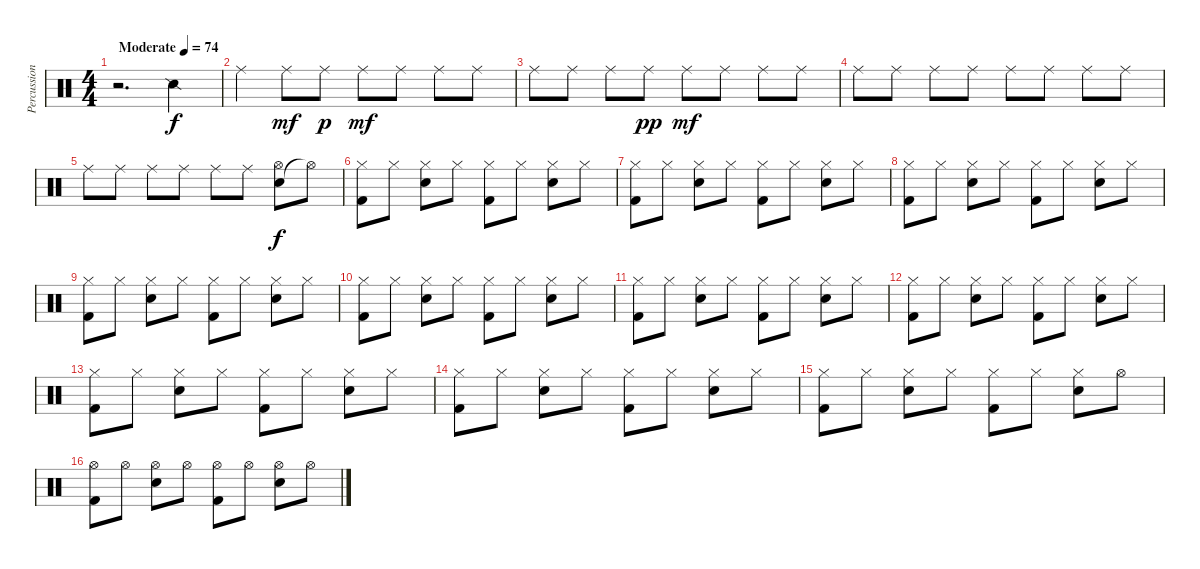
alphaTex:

\track ("Percussions" "Percussion") {instrument percussion}
\staff {score}
\articulation defaults
\ts (4 4)
\tempo (74 "Moderate")
\clef neutral
\ks c
r.2{d dy f} "Snare (side stick) 2".4 |
"Ride (middle)".4 "Ride (middle)".8{dy mf} "Ride (middle)".8{dy p} "Ride (middle)".8{dy mf} "Ride (middle)".8 "Ride (middle)".8 "Ride (middle)".8 |
"Ride (middle)".8 "Ride (middle)".8 "Ride (middle)".8 "Ride (middle)".8{dy pp} "Ride (middle)".8{dy mf} "Ride (middle)".8 "Ride (middle)".8 "Ride (middle)".8 |
"Ride (middle)".8 "Ride (middle)".8 "Ride (middle)".8 "Ride (middle)".8 "Ride (middle)".8 "Ride (middle)".8 "Ride (middle)".8 "Ride (middle)".8 |
"Ride (middle)".8 "Ride (middle)".8 "Ride (middle)".8 "Ride (middle)".8 "Ride (middle)".8 "Ride (middle)".8 ("Electric Snare (hit)" "Hi-Hat (open)").8{dy f} "Hi-Hat (open)"{t}.8 |
("Hi-Hat (closed)" "Kick (hit) 2").8 "Hi-Hat (closed)".8 ("Hi-Hat (closed)" "Electric Snare (hit)").8 "Hi-Hat (closed)".8 ("Hi-Hat (closed)" "Kick (hit) 2").8 "Hi-Hat (closed)".8 ("Hi-Hat (closed)" "Electric Snare (hit)").8 "Hi-Hat (closed)".8 |
("Hi-Hat (closed)" "Kick (hit) 2").8 "Hi-Hat (closed)".8 ("Hi-Hat (closed)" "Electric Snare (hit)").8 "Hi-Hat (closed)".8 ("Hi-Hat (closed)" "Kick (hit) 2").8 "Hi-Hat (closed)".8 ("Hi-Hat (closed)" "Electric Snare (hit)").8 "Hi-Hat (closed)".8 |
("Hi-Hat (closed)" "Kick (hit) 2").8 "Hi-Hat (closed)".8 ("Hi-Hat (closed)" "Electric Snare (hit)").8 "Hi-Hat (closed)".8 ("Hi-Hat (closed)" "Kick (hit) 2").8 "Hi-Hat (closed)".8 ("Hi-Hat (closed)" "Electric Snare (hit)").8 "Hi-Hat (closed)".8 |
("Hi-Hat (closed)" "Kick (hit) 2").8 "Hi-Hat (closed)".8 ("Hi-Hat (closed)" "Electric Snare (hit)").8 "Hi-Hat (closed)".8 ("Hi-Hat (closed)" "Kick (hit) 2").8 "Hi-Hat (closed)".8 ("Hi-Hat (closed)" "Electric Snare (hit)").8 "Hi-Hat (closed)".8 |
("Hi-Hat (closed)" "Kick (hit) 2").8 "Hi-Hat (closed)".8 ("Hi-Hat (closed)" "Electric Snare (hit)").8 "Hi-Hat (closed)".8 ("Hi-Hat (closed)" "Kick (hit) 2").8 "Hi-Hat (closed)".8 ("Hi-Hat (closed)" "Electric Snare (hit)").8 "Hi-Hat (closed)".8 |
("Hi-Hat (closed)" "Kick (hit) 2").8 "Hi-Hat (closed)".8 ("Hi-Hat (closed)" "Electric Snare (hit)").8 "Hi-Hat (closed)".8 ("Hi-Hat (closed)" "Kick (hit) 2").8 "Hi-Hat (closed)".8 ("Hi-Hat (closed)" "Electric Snare (hit)").8 "Hi-Hat (closed)".8 |
("Hi-Hat (closed)" "Kick (hit) 2").8 "Hi-Hat (closed)".8 ("Hi-Hat (closed)" "Electric Snare (hit)").8 "Hi-Hat (closed)".8 ("Hi-Hat (closed)" "Kick (hit) 2").8 "Hi-Hat (closed)".8 ("Hi-Hat (closed)" "Electric Snare (hit)").8 "Hi-Hat (closed)".8 |
("Hi-Hat (closed)" "Kick (hit) 2").8 "Hi-Hat (closed)".8 ("Hi-Hat (closed)" "Electric Snare (hit)").8 "Hi-Hat (closed)".8 ("Hi-Hat (closed)" "Kick (hit) 2").8 "Hi-Hat (closed)".8 ("Hi-Hat (closed)" "Electric Snare (hit)").8 "Hi-Hat (closed)".8 |
("Hi-Hat (closed)" "Kick (hit) 2").8 "Hi-Hat (closed)".8 ("Hi-Hat (closed)" "Electric Snare (hit)").8 "Hi-Hat (closed)".8 ("Hi-Hat (closed)" "Kick (hit) 2").8 "Hi-Hat (closed)".8 ("Hi-Hat (closed)" "Electric Snare (hit)").8 "Hi-Hat (closed)".8 |
("Hi-Hat (closed)" "Kick (hit) 2").8 "Hi-Hat (closed)".8 ("Hi-Hat (closed)" "Electric Snare (hit)").8 "Hi-Hat (closed)".8 ("Hi-Hat (closed)" "Kick (hit) 2").8 "Hi-Hat (closed)".8 ("Hi-Hat (closed)" "Electric Snare (hit)").8 "Hi-Hat (open)".8 |
("Hi-Hat (open)" "Kick (hit) 2").8 "Hi-Hat (open)".8 ("Hi-Hat (open)" "Electric Snare (hit)").8 "Hi-Hat (open)".8 ("Hi-Hat (open)" "Kick (hit) 2").8 "Hi-Hat (open)".8 ("Hi-Hat (open)" "Electric Snare (hit)").8 "Hi-Hat (open)".8
